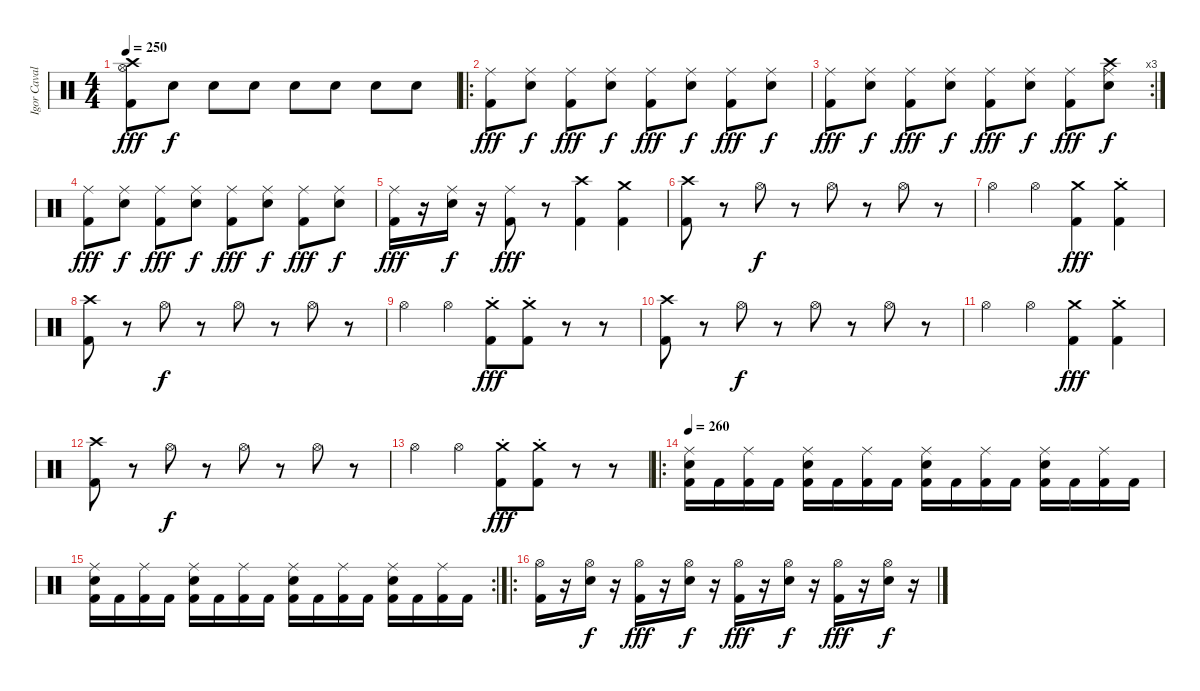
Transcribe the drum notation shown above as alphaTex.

\track ("Igor Cavalera" "Igor Caval") {instrument percussion}
\staff {score}
\articulation defaults
\ts (4 4)
\tempo 250
\clef neutral
\ks c
("Crash high (hit)" "Hi-Hat (open)" "Kick (hit) 2").8{dy fff} "Electric Snare (hit)".8{dy f} "Electric Snare (hit)".8 "Electric Snare (hit)".8 "Electric Snare (hit)".8 "Electric Snare (hit)".8 "Electric Snare (hit)".8 "Electric Snare (hit)".8 |
\ro
("Ride (middle)" "Kick (hit) 2").8{dy fff} ("Electric Snare (hit)" "Ride (middle)").8{dy f} ("Ride (middle)" "Kick (hit) 2").8{dy fff} ("Electric Snare (hit)" "Ride (middle)").8{dy f} ("Ride (middle)" "Kick (hit) 2").8{dy fff} ("Electric Snare (hit)" "Ride (middle)").8{dy f} ("Ride (middle)" "Kick (hit) 2").8{dy fff} ("Electric Snare (hit)" "Ride (middle)").8{dy f} |
\rc 3
("Ride (middle)" "Kick (hit) 2").8{dy fff} ("Electric Snare (hit)" "Ride (middle)").8{dy f} ("Ride (middle)" "Kick (hit) 2").8{dy fff} ("Electric Snare (hit)" "Ride (middle)").8{dy f} ("Ride (middle)" "Kick (hit) 2").8{dy fff} ("Electric Snare (hit)" "Ride (middle)").8{dy f} ("Ride (middle)" "Kick (hit) 2").8{dy fff} ("Crash high (hit)" "Electric Snare (hit)" "Ride (middle)").8{dy f} |
("Ride (middle)" "Kick (hit) 2").8{dy fff} ("Electric Snare (hit)" "Ride (middle)").8{dy f} ("Ride (middle)" "Kick (hit) 2").8{dy fff} ("Electric Snare (hit)" "Ride (middle)").8{dy f} ("Ride (middle)" "Kick (hit) 2").8{dy fff} ("Electric Snare (hit)" "Ride (middle)").8{dy f} ("Ride (middle)" "Kick (hit) 2").8{dy fff} ("Electric Snare (hit)" "Ride (middle)").8{dy f} |
("Ride (middle)" "Kick (hit) 2").16{dy fff} r.16 ("Electric Snare (hit)" "Ride (middle)").16{dy f} r.16 ("Ride (middle)" "Kick (hit) 2").8{dy fff} r.8 ("Crash high (hit)" "Kick (hit) 2").4 ("Crash medium (hit)" "Kick (hit) 2").4 |
("Crash high (hit)" "Kick (hit) 2").8 r.8 "Hi-Hat (open)".8{dy f} r.8 "Hi-Hat (open)".8 r.8 "Hi-Hat (open)".8 r.8 |
"Hi-Hat (open)".4 "Hi-Hat (open)".4 ("Crash medium (hit)" "Kick (hit) 2").4{dy fff} ("Crash medium (hit)"{st} "Kick (hit) 2"{st}).4 |
("Crash high (hit)" "Kick (hit) 2").8 r.8 "Hi-Hat (open)".8{dy f} r.8 "Hi-Hat (open)".8 r.8 "Hi-Hat (open)".8 r.8 |
"Hi-Hat (open)".4 "Hi-Hat (open)".4 ("Crash medium (hit)"{st} "Kick (hit) 2").8{dy fff} ("Crash medium (hit)"{st} "Kick (hit) 2"{st}).8 r.8 r.8 |
("Crash high (hit)" "Kick (hit) 2").8 r.8 "Hi-Hat (open)".8{dy f} r.8 "Hi-Hat (open)".8 r.8 "Hi-Hat (open)".8 r.8 |
"Hi-Hat (open)".4 "Hi-Hat (open)".4 ("Crash medium (hit)" "Kick (hit) 2").4{dy fff} ("Crash medium (hit)"{st} "Kick (hit) 2"{st}).4 |
("Crash high (hit)" "Kick (hit) 2").8 r.8 "Hi-Hat (open)".8{dy f} r.8 "Hi-Hat (open)".8 r.8 "Hi-Hat (open)".8 r.8 |
"Hi-Hat (open)".4 "Hi-Hat (open)".4 ("Crash medium (hit)"{st} "Kick (hit) 2").8{dy fff} ("Crash medium (hit)"{st} "Kick (hit) 2"{st}).8 r.8 r.8 |
\ro
\tempo 260
("Electric Snare (hit)" "Ride (middle)" "Kick (hit) 2").16 "Kick (hit) 2".16 ("Ride (middle)" "Kick (hit) 2").16 "Kick (hit) 2".16 ("Electric Snare (hit)" "Ride (middle)" "Kick (hit) 2").16 "Kick (hit) 2".16 ("Ride (middle)" "Kick (hit) 2").16 "Kick (hit) 2".16 ("Electric Snare (hit)" "Ride (middle)" "Kick (hit) 2").16 "Kick (hit) 2".16 ("Ride (middle)" "Kick (hit) 2").16 "Kick (hit) 2".16 ("Electric Snare (hit)" "Ride (middle)" "Kick (hit) 2").16 "Kick (hit) 2".16 ("Ride (middle)" "Kick (hit) 2").16 "Kick (hit) 2".16 |
\rc 2
("Electric Snare (hit)" "Ride (middle)" "Kick (hit) 2").16 "Kick (hit) 2".16 ("Ride (middle)" "Kick (hit) 2").16 "Kick (hit) 2".16 ("Electric Snare (hit)" "Ride (middle)" "Kick (hit) 2").16 "Kick (hit) 2".16 ("Ride (middle)" "Kick (hit) 2").16 "Kick (hit) 2".16 ("Electric Snare (hit)" "Ride (middle)" "Kick (hit) 2").16 "Kick (hit) 2".16 ("Ride (middle)" "Kick (hit) 2").16 "Kick (hit) 2".16 ("Electric Snare (hit)" "Ride (middle)" "Kick (hit) 2").16 "Kick (hit) 2".16 ("Ride (middle)" "Kick (hit) 2").16 "Kick (hit) 2".16 |
\ro
("Hi-Hat (open)" "Kick (hit) 2").16 r.16 ("Electric Snare (hit)" "Hi-Hat (open)").16{dy f} r.16 ("Hi-Hat (open)" "Kick (hit) 2").16{dy fff} r.16 ("Electric Snare (hit)" "Hi-Hat (open)").16{dy f} r.16 ("Hi-Hat (open)" "Kick (hit) 2").16{dy fff} r.16 ("Electric Snare (hit)" "Hi-Hat (open)").16{dy f} r.16 ("Hi-Hat (open)" "Kick (hit) 2").16{dy fff} r.16 ("Electric Snare (hit)" "Hi-Hat (open)").16{dy f} r.16
